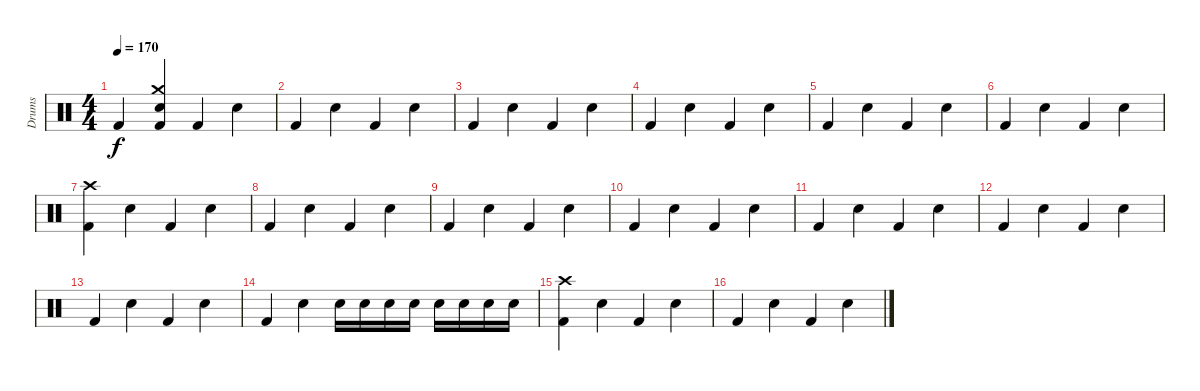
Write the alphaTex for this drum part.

\track ("Drums" "Drums") {instrument percussion}
\staff {score}
\articulation defaults
\ts (4 4)
\tempo 170
\clef neutral
\ks c "Kick (hit) 2".4{dy f}
("Kick (hit) 2" "Crash medium (hit)" "Snare (hit) 2").4 "Kick (hit) 2".4 "Snare (hit) 2".4 |
"Kick (hit) 2".4 "Snare (hit) 2".4 "Kick (hit) 2".4 "Snare (hit) 2".4 |
"Kick (hit) 2".4 "Snare (hit) 2".4 "Kick (hit) 2".4 "Snare (hit) 2".4 |
"Kick (hit) 2".4 "Snare (hit) 2".4 "Kick (hit) 2".4 "Snare (hit) 2".4 |
"Kick (hit) 2".4 "Snare (hit) 2".4 "Kick (hit) 2".4 "Snare (hit) 2".4 |
"Kick (hit) 2".4 "Snare (hit) 2".4 "Kick (hit) 2".4 "Snare (hit) 2".4 |
("Crash high (hit)" "Kick (hit) 2").4 "Snare (hit) 2".4 "Kick (hit) 2".4 "Snare (hit) 2".4 |
"Kick (hit) 2".4 "Snare (hit) 2".4 "Kick (hit) 2".4 "Snare (hit) 2".4 |
"Kick (hit) 2".4 "Snare (hit) 2".4 "Kick (hit) 2".4 "Snare (hit) 2".4 |
"Kick (hit) 2".4 "Snare (hit) 2".4 "Kick (hit) 2".4 "Snare (hit) 2".4 |
"Kick (hit) 2".4 "Snare (hit) 2".4 "Kick (hit) 2".4 "Snare (hit) 2".4 |
"Kick (hit) 2".4 "Snare (hit) 2".4 "Kick (hit) 2".4 "Snare (hit) 2".4 |
"Kick (hit) 2".4 "Snare (hit) 2".4 "Kick (hit) 2".4 "Snare (hit) 2".4 |
"Kick (hit) 2".4 "Snare (hit) 2".4 "Snare (hit) 2".16 "Snare (hit) 2".16 "Snare (hit) 2".16 "Snare (hit) 2".16 "Snare (hit) 2".16 "Snare (hit) 2".16 "Snare (hit) 2".16 "Snare (hit) 2".16 |
("Crash high (hit)" "Kick (hit) 2").4 "Snare (hit) 2".4 "Kick (hit) 2".4 "Snare (hit) 2".4 |
"Kick (hit) 2".4 "Snare (hit) 2".4 "Kick (hit) 2".4 "Snare (hit) 2".4
